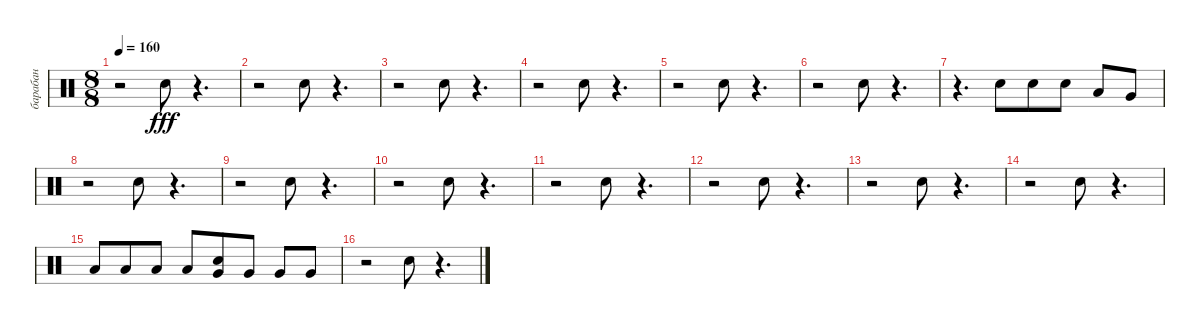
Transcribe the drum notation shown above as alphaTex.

\track ("барабан" "барабан") {instrument percussion}
\staff {score}
\articulation defaults
\ts (8 8)
\tempo 160
\clef neutral
\ks c
r.2{dy fff} "Snare (hit) 2".8 r.4{d} |
r.2 "Snare (hit) 2".8 r.4{d} |
r.2 "Snare (hit) 2".8 r.4{d} |
r.2 "Snare (hit) 2".8 r.4{d} |
r.2 "Snare (hit) 2".8 r.4{d} |
r.2 "Snare (hit) 2".8 r.4{d} |
r.4{d} "Snare (hit) 2".8 "Snare (hit) 2".8 "Snare (hit) 2".8 "Low Tom (hit)".8 "Very Low Tom (hit)".8 |
r.2 "Snare (hit) 2".8 r.4{d} |
r.2 "Snare (hit) 2".8 r.4{d} |
r.2 "Snare (hit) 2".8 r.4{d} |
r.2 "Snare (hit) 2".8 r.4{d} |
r.2 "Snare (hit) 2".8 r.4{d} |
r.2 "Snare (hit) 2".8 r.4{d} |
r.2 "Snare (hit) 2".8 r.4{d} |
"Low Tom (hit)".8 "Low Tom (hit)".8 "Low Tom (hit)".8 "Low Tom (hit)".8 ("Snare (hit) 2" "Very Low Tom (hit)").8 "Very Low Tom (hit)".8 "Very Low Tom (hit)".8 "Very Low Tom (hit)".8 |
r.2 "Snare (hit) 2".8 r.4{d}
